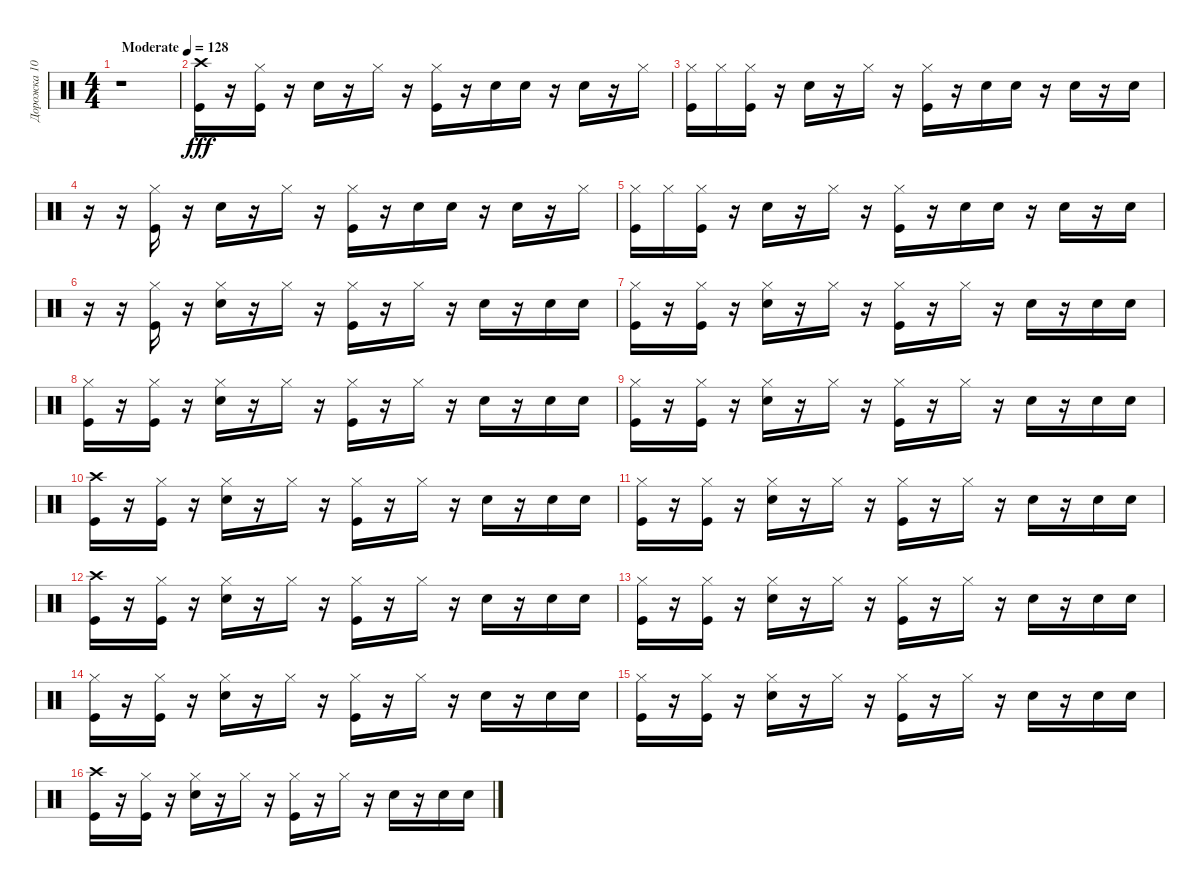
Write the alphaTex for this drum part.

\track ("Дорожка 10" "Дорожка 10") {instrument percussion}
\staff {score}
\articulation defaults
\ts (4 4)
\tempo (128 "Moderate")
\clef neutral
\ks c
r.1{dy fff} |
("Kick (hit)" "Crash high (hit)").16 r.16 ("Kick (hit)" "Hi-Hat (closed)").16 r.16 "Electric Snare (hit)".16 r.16 "Hi-Hat (closed)".16 r.16 ("Kick (hit)" "Hi-Hat (closed)").16 r.16 "Electric Snare (hit)".16 "Electric Snare (hit)".16 r.16 "Electric Snare (hit)".16 r.16 "Hi-Hat (closed)".16 |
("Kick (hit)" "Hi-Hat (closed)").16 "Hi-Hat (closed)".16 ("Kick (hit)" "Hi-Hat (closed)").16 r.16 "Electric Snare (hit)".16 r.16 "Hi-Hat (closed)".16 r.16 ("Kick (hit)" "Hi-Hat (closed)").16 r.16 "Electric Snare (hit)".16 "Electric Snare (hit)".16 r.16 "Electric Snare (hit)".16 r.16 "Electric Snare (hit)".16 |
r.16 r.16 ("Kick (hit)" "Hi-Hat (closed)").16 r.16 "Electric Snare (hit)".16 r.16 "Hi-Hat (closed)".16 r.16 ("Kick (hit)" "Hi-Hat (closed)").16 r.16 "Electric Snare (hit)".16 "Electric Snare (hit)".16 r.16 "Electric Snare (hit)".16 r.16 "Hi-Hat (closed)".16 |
("Kick (hit)" "Hi-Hat (closed)").16 "Hi-Hat (closed)".16 ("Kick (hit)" "Hi-Hat (closed)").16 r.16 "Electric Snare (hit)".16 r.16 "Hi-Hat (closed)".16 r.16 ("Kick (hit)" "Hi-Hat (closed)").16 r.16 "Electric Snare (hit)".16 "Electric Snare (hit)".16 r.16 "Electric Snare (hit)".16 r.16 "Electric Snare (hit)".16 |
r.16 r.16 ("Hi-Hat (closed)" "Kick (hit)").16 r.16 ("Electric Snare (hit)" "Hi-Hat (closed)").16 r.16 "Hi-Hat (closed)".16 r.16 ("Kick (hit)" "Hi-Hat (closed)").16 r.16 "Hi-Hat (closed)".16 r.16 "Electric Snare (hit)".16 r.16 "Electric Snare (hit)".16 "Electric Snare (hit)".16 |
("Hi-Hat (closed)" "Kick (hit)").16 r.16 ("Hi-Hat (closed)" "Kick (hit)").16 r.16 ("Electric Snare (hit)" "Hi-Hat (closed)").16 r.16 "Hi-Hat (closed)".16 r.16 ("Kick (hit)" "Hi-Hat (closed)").16 r.16 "Hi-Hat (closed)".16 r.16 "Electric Snare (hit)".16 r.16 "Electric Snare (hit)".16 "Electric Snare (hit)".16 |
("Kick (hit)" "Hi-Hat (closed)").16 r.16 ("Hi-Hat (closed)" "Kick (hit)").16 r.16 ("Electric Snare (hit)" "Hi-Hat (closed)").16 r.16 "Hi-Hat (closed)".16 r.16 ("Kick (hit)" "Hi-Hat (closed)").16 r.16 "Hi-Hat (closed)".16 r.16 "Electric Snare (hit)".16 r.16 "Electric Snare (hit)".16 "Electric Snare (hit)".16 |
("Kick (hit)" "Hi-Hat (closed)").16 r.16 ("Hi-Hat (closed)" "Kick (hit)").16 r.16 ("Electric Snare (hit)" "Hi-Hat (closed)").16 r.16 "Hi-Hat (closed)".16 r.16 ("Kick (hit)" "Hi-Hat (closed)").16 r.16 "Hi-Hat (closed)".16 r.16 "Electric Snare (hit)".16 r.16 "Electric Snare (hit)".16 "Electric Snare (hit)".16 |
("Crash high (hit)" "Kick (hit)").16 r.16 ("Hi-Hat (closed)" "Kick (hit)").16 r.16 ("Electric Snare (hit)" "Hi-Hat (closed)").16 r.16 "Hi-Hat (closed)".16 r.16 ("Kick (hit)" "Hi-Hat (closed)").16 r.16 "Hi-Hat (closed)".16 r.16 "Electric Snare (hit)".16 r.16 "Electric Snare (hit)".16 "Electric Snare (hit)".16 |
("Kick (hit)" "Hi-Hat (closed)").16 r.16 ("Kick (hit)" "Hi-Hat (closed)").16 r.16 ("Electric Snare (hit)" "Hi-Hat (closed)").16 r.16 "Hi-Hat (closed)".16 r.16 ("Hi-Hat (closed)" "Kick (hit)").16 r.16 "Hi-Hat (closed)".16 r.16 "Electric Snare (hit)".16 r.16 "Electric Snare (hit)".16 "Electric Snare (hit)".16 |
("Crash high (hit)" "Kick (hit)").16 r.16 ("Hi-Hat (closed)" "Kick (hit)").16 r.16 ("Electric Snare (hit)" "Hi-Hat (closed)").16 r.16 "Hi-Hat (closed)".16 r.16 ("Hi-Hat (closed)" "Kick (hit)").16 r.16 "Hi-Hat (closed)".16 r.16 "Electric Snare (hit)".16 r.16 "Electric Snare (hit)".16 "Electric Snare (hit)".16 |
("Hi-Hat (closed)" "Kick (hit)").16 r.16 ("Hi-Hat (closed)" "Kick (hit)").16 r.16 ("Electric Snare (hit)" "Hi-Hat (closed)").16 r.16 "Hi-Hat (closed)".16 r.16 ("Hi-Hat (closed)" "Kick (hit)").16 r.16 "Hi-Hat (closed)".16 r.16 "Electric Snare (hit)".16 r.16 "Electric Snare (hit)".16 "Electric Snare (hit)".16 |
("Kick (hit)" "Hi-Hat (closed)").16 r.16 ("Hi-Hat (closed)" "Kick (hit)").16 r.16 ("Electric Snare (hit)" "Hi-Hat (closed)").16 r.16 "Hi-Hat (closed)".16 r.16 ("Kick (hit)" "Hi-Hat (closed)").16 r.16 "Hi-Hat (closed)".16 r.16 "Electric Snare (hit)".16 r.16 "Electric Snare (hit)".16 "Electric Snare (hit)".16 |
("Kick (hit)" "Hi-Hat (closed)").16 r.16 ("Kick (hit)" "Hi-Hat (closed)").16 r.16 ("Electric Snare (hit)" "Hi-Hat (closed)").16 r.16 "Hi-Hat (closed)".16 r.16 ("Hi-Hat (closed)" "Kick (hit)").16 r.16 "Hi-Hat (closed)".16 r.16 "Electric Snare (hit)".16 r.16 "Electric Snare (hit)".16 "Electric Snare (hit)".16 |
("Kick (hit)" "Crash high (hit)").16 r.16 ("Kick (hit)" "Hi-Hat (closed)").16 r.16 ("Electric Snare (hit)" "Hi-Hat (closed)").16 r.16 "Hi-Hat (closed)".16 r.16 ("Kick (hit)" "Hi-Hat (closed)").16 r.16 "Hi-Hat (closed)".16 r.16 "Electric Snare (hit)".16 r.16 "Electric Snare (hit)".16 "Electric Snare (hit)".16
